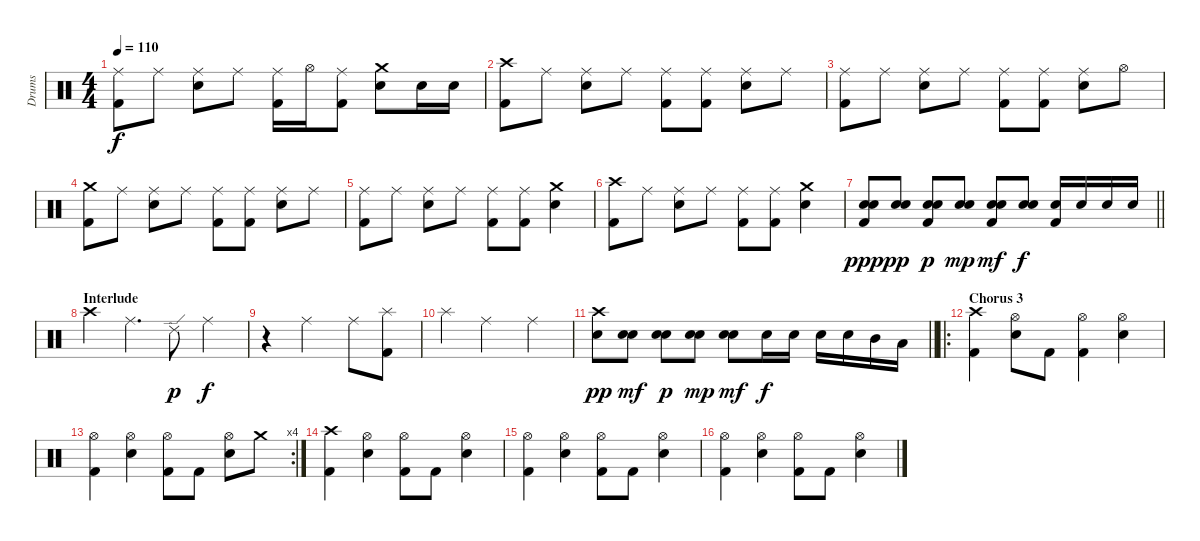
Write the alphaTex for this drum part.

\track ("Drums" "Drums") {instrument percussion bank 10}
\staff {score}
\articulation defaults
\ts (4 4)
\tempo 110
\clef neutral
\ks c
("Kick (hit) 2" "Ride (middle)").8{dy f} "Ride (middle)".8 ("Ride (middle)" "Snare (hit) 2").8 "Ride (middle)".8 ("Ride (middle)" "Kick (hit) 2").16 "Hi-Hat (open)".16 ("Ride (middle)" "Kick (hit) 2").8 ("Crash medium (hit)" "Snare (hit) 2").8 "Snare (hit) 2".16 "Snare (hit) 2".16 |
("Kick (hit) 2" "Crash high (hit)").8 "Ride (middle)".8 ("Ride (middle)" "Snare (hit) 2").8 "Ride (middle)".8 ("Ride (middle)" "Kick (hit) 2").8 ("Ride (middle)" "Kick (hit) 2").8 ("Ride (middle)" "Snare (hit) 2").8 "Ride (middle)".8 |
("Kick (hit) 2" "Ride (middle)").8 "Ride (middle)".8 ("Ride (middle)" "Snare (hit) 2").8 "Ride (middle)".8 ("Ride (middle)" "Kick (hit) 2").8 ("Ride (middle)" "Kick (hit) 2").8 ("Ride (middle)" "Snare (hit) 2").8 "Hi-Hat (open)".8 |
("Kick (hit) 2" "Crash medium (hit)").8 "Ride (middle)".8 ("Ride (middle)" "Snare (hit) 2").8 "Ride (middle)".8 ("Ride (middle)" "Kick (hit) 2").8 ("Ride (middle)" "Kick (hit) 2").8 ("Ride (middle)" "Snare (hit) 2").8 "Ride (middle)".8 |
("Kick (hit) 2" "Ride (middle)").8 "Ride (middle)".8 ("Ride (middle)" "Snare (hit) 2").8 "Ride (middle)".8 ("Ride (middle)" "Kick (hit) 2").8 ("Ride (middle)" "Kick (hit) 2").8 ("Crash medium (hit)" "Snare (hit) 2").4 |
("Kick (hit) 2" "Crash high (hit)").8 "Ride (middle)".8 ("Ride (middle)" "Snare (hit) 2").8 "Ride (middle)".8 ("Ride (middle)" "Kick (hit) 2").8 ("Ride (middle)" "Kick (hit) 2").8 ("Crash medium (hit)" "Snare (hit) 2").4 |
\barLineRight lightlight
("Snare (hit) 2" "Snare (hit) 2" "Kick (hit) 2").8{dy ppp} ("Snare (hit) 2" "Snare (hit) 2").8{dy pp} ("Snare (hit) 2" "Snare (hit) 2" "Kick (hit) 2").8{dy p} ("Snare (hit) 2" "Snare (hit) 2").8{dy mp} ("Snare (hit) 2" "Snare (hit) 2" "Kick (hit) 2").8{dy mf} ("Snare (hit) 2" "Snare (hit) 2").8{dy f} ("Snare (hit) 2" "Kick (hit) 2").16 "Snare (hit) 2".16 "Snare (hit) 2".16 "Snare (hit) 2".16 |
\section ("" "Interlude")
"Crash high (hit)".4 "Ride (middle)".4{d} "Ride (edge) 2".8{dy p} "Ride (middle)".4{dy f} |
r.4 "Ride (middle)".2 "Ride (middle)".8 ("Kick (hit) 2" "Splash (hit)").8 |
"Splash (hit)".4 "Ride (middle)".2 "Ride (middle)".4 |
\barLineRight lightlight
("Crash high (hit)" "Snare (hit) 2").8{dy pp} ("Snare (hit) 2" "Snare (hit) 2").8{dy mf} ("Snare (hit) 2" "Snare (hit) 2").8{dy p} ("Snare (hit) 2" "Snare (hit) 2").8{dy mp} ("Snare (hit) 2" "Snare (hit) 2").8{dy mf} "Snare (hit) 2".16{dy f} "Snare (hit) 2".16 "Snare (hit) 2".16 "Snare (hit) 2".16 "Mid Tom (hit)".16 "Low Tom (hit)".16 |
\ro
\section ("" "Chorus 3")
("Crash high (hit)" "Kick (hit) 2").4 ("Hi-Hat (open)" "Snare (hit) 2").8 "Kick (hit) 2".8 ("Hi-Hat (open)" "Kick (hit) 2").4 ("Hi-Hat (open)" "Snare (hit) 2").4 |
\rc 4
("Hi-Hat (open)" "Kick (hit) 2").4 ("Hi-Hat (open)" "Snare (hit) 2").4 ("Hi-Hat (open)" "Kick (hit) 2").8 "Kick (hit) 2".8 ("Hi-Hat (open)" "Snare (hit) 2").8 "Crash medium (hit)".8 |
("Kick (hit) 2" "Crash high (hit)").4 ("Hi-Hat (open)" "Snare (hit) 2").4 ("Hi-Hat (open)" "Kick (hit) 2").8 "Kick (hit) 2".8 ("Hi-Hat (open)" "Snare (hit) 2").4 |
("Kick (hit) 2" "Hi-Hat (open)").4 ("Hi-Hat (open)" "Snare (hit) 2").4 ("Hi-Hat (open)" "Kick (hit) 2").8 "Kick (hit) 2".8 ("Hi-Hat (open)" "Snare (hit) 2").4 |
("Kick (hit) 2" "Hi-Hat (open)").4 ("Hi-Hat (open)" "Snare (hit) 2").4 ("Hi-Hat (open)" "Kick (hit) 2").8 "Kick (hit) 2".8 ("Hi-Hat (open)" "Snare (hit) 2").4
